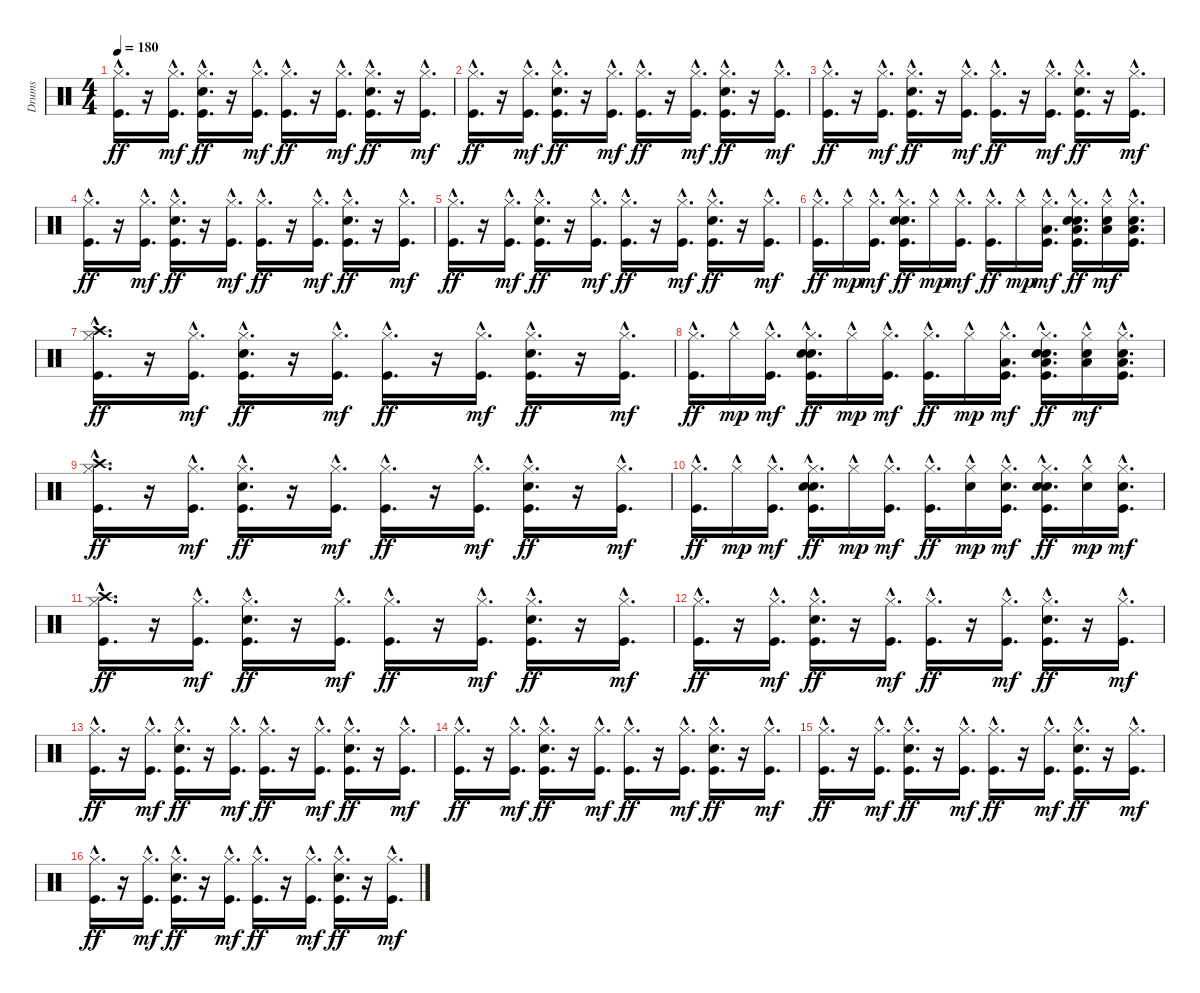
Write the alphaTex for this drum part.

\track ("Drums" "Drums") {instrument percussion}
\staff {score}
\articulation defaults
\ts (4 4)
\tempo 180
\clef neutral
\ks c
("Kick (hit)"{hac} "Hi-Hat (closed)"{hac}).16{d dy ff} r.16 ("Kick (hit)"{hac} "Hi-Hat (closed)"{hac}).16{d dy mf} ("Hi-Hat (closed)"{hac} "Snare (hit) 2"{hac} "Kick (hit)"{hac}).16{d dy ff} r.16 ("Kick (hit)"{hac} "Hi-Hat (closed)"{hac}).16{d dy mf} ("Kick (hit)"{hac} "Hi-Hat (closed)"{hac}).16{d dy ff} r.16 ("Kick (hit)"{hac} "Hi-Hat (closed)"{hac}).16{d dy mf} ("Kick (hit)"{hac} "Hi-Hat (closed)"{hac} "Snare (hit) 2"{hac}).16{d dy ff} r.16 ("Kick (hit)"{hac} "Hi-Hat (closed)"{hac}).16{d dy mf} |
("Kick (hit)"{hac} "Hi-Hat (closed)"{hac}).16{d dy ff} r.16 ("Kick (hit)"{hac} "Hi-Hat (closed)"{hac}).16{d dy mf} ("Kick (hit)"{hac} "Hi-Hat (closed)"{hac} "Snare (hit) 2"{hac}).16{d dy ff} r.16 ("Hi-Hat (closed)"{hac} "Kick (hit)"{hac}).16{d dy mf} ("Kick (hit)"{hac} "Hi-Hat (closed)"{hac}).16{d dy ff} r.16 ("Kick (hit)"{hac} "Hi-Hat (closed)"{hac}).16{d dy mf} ("Hi-Hat (closed)"{hac} "Snare (hit) 2"{hac} "Kick (hit)"{hac}).16{d dy ff} r.16 ("Hi-Hat (closed)"{hac} "Kick (hit)"{hac}).16{d dy mf} |
("Kick (hit)"{hac} "Hi-Hat (closed)"{hac}).16{d dy ff} r.16 ("Kick (hit)"{hac} "Hi-Hat (closed)"{hac}).16{d dy mf} ("Hi-Hat (closed)"{hac} "Snare (hit) 2"{hac} "Kick (hit)"{hac}).16{d dy ff} r.16 ("Kick (hit)"{hac} "Hi-Hat (closed)"{hac}).16{d dy mf} ("Kick (hit)"{hac} "Hi-Hat (closed)"{hac}).16{d dy ff} r.16 ("Hi-Hat (closed)"{hac} "Kick (hit)"{hac}).16{d dy mf} ("Hi-Hat (closed)"{hac} "Snare (hit) 2"{hac} "Kick (hit)"{hac}).16{d dy ff} r.16 ("Kick (hit)"{hac} "Hi-Hat (closed)"{hac}).16{d dy mf} |
("Kick (hit)"{hac} "Hi-Hat (closed)"{hac}).16{d dy ff} r.16 ("Hi-Hat (closed)"{hac} "Kick (hit)"{hac}).16{d dy mf} ("Hi-Hat (closed)"{hac} "Snare (hit) 2"{hac} "Kick (hit)"{hac}).16{d dy ff} r.16 ("Kick (hit)"{hac} "Hi-Hat (closed)"{hac}).16{d dy mf} ("Kick (hit)"{hac} "Hi-Hat (closed)"{hac}).16{d dy ff} r.16 ("Kick (hit)"{hac} "Hi-Hat (closed)"{hac}).16{d dy mf} ("Kick (hit)"{hac} "Snare (hit) 2"{hac} "Hi-Hat (closed)"{hac}).16{d dy ff} r.16 ("Kick (hit)"{hac} "Hi-Hat (closed)"{hac}).16{d dy mf} |
("Kick (hit)"{hac} "Hi-Hat (closed)"{hac}).16{d dy ff} r.16 ("Hi-Hat (closed)"{hac} "Kick (hit)"{hac}).16{d dy mf} ("Kick (hit)"{hac} "Snare (hit) 2"{hac} "Hi-Hat (closed)"{hac}).16{d dy ff} r.16 ("Kick (hit)"{hac} "Hi-Hat (closed)"{hac}).16{d dy mf} ("Kick (hit)"{hac} "Hi-Hat (closed)"{hac}).16{d dy ff} r.16 ("Hi-Hat (closed)"{hac} "Kick (hit)"{hac}).16{d dy mf} ("Snare (hit) 2"{hac} "Kick (hit)"{hac} "Hi-Hat (closed)"{hac}).16{d dy ff} r.16 ("Kick (hit)"{hac} "Hi-Hat (closed)"{hac}).16{d dy mf} |
("Kick (hit)"{hac} "Hi-Hat (closed)"{hac}).16{d dy ff} "Hi-Hat (closed)"{hac}.16{dy mp} ("Hi-Hat (closed)"{hac} "Kick (hit)"{hac}).16{d dy mf} ("Kick (hit)"{hac} "Hand Clap (hit)"{hac} "Hi-Hat (closed)"{hac} "Snare (hit) 2"{hac}).16{d dy ff} "Hi-Hat (closed)"{hac}.16{dy mp} ("Kick (hit)"{hac} "Hi-Hat (closed)"{hac}).16{d dy mf} ("Hi-Hat (closed)"{hac} "Kick (hit)"{hac}).16{d dy ff} "Hi-Hat (closed)"{hac}.16{dy mp} ("Kick (hit)"{hac} "Hi-Hat (closed)"{hac} "Low Tom (hit)"{hac}).16{d dy mf} ("Kick (hit)"{hac} "Snare (hit) 2"{hac} "Hand Clap (hit)"{hac} "Low Tom (hit)"{hac} "Hi-Hat (closed)"{hac}).16{d dy ff} ("Hi-Hat (closed)"{hac} "Snare (hit) 2"{hac} "Low Tom (hit)"{hac}).16{dy mf} ("Hi-Hat (closed)"{hac} "Snare (hit) 2"{hac} "Kick (hit)"{hac} "Low Tom (hit)"{hac}).16{d} |
("Kick (hit)"{hac} "Crash high (hit)"{hac} "Hi-Hat (closed)"{hac}).16{d dy ff} r.16 ("Hi-Hat (closed)"{hac} "Kick (hit)"{hac}).16{d dy mf} ("Hi-Hat (closed)"{hac} "Snare (hit) 2"{hac} "Kick (hit)"{hac}).16{d dy ff} r.16 ("Kick (hit)"{hac} "Hi-Hat (closed)"{hac}).16{d dy mf} ("Kick (hit)"{hac} "Hi-Hat (closed)"{hac}).16{d dy ff} r.16 ("Hi-Hat (closed)"{hac} "Kick (hit)"{hac}).16{d dy mf} ("Hi-Hat (closed)"{hac} "Snare (hit) 2"{hac} "Kick (hit)"{hac}).16{d dy ff} r.16 ("Kick (hit)"{hac} "Hi-Hat (closed)"{hac}).16{d dy mf} |
("Kick (hit)"{hac} "Hi-Hat (closed)"{hac}).16{d dy ff} "Hi-Hat (closed)"{hac}.16{dy mp} ("Hi-Hat (closed)"{hac} "Kick (hit)"{hac}).16{d dy mf} ("Hi-Hat (closed)"{hac} "Hand Clap (hit)"{hac} "Kick (hit)"{hac} "Snare (hit) 2"{hac}).16{d dy ff} "Hi-Hat (closed)"{hac}.16{dy mp} ("Kick (hit)"{hac} "Hi-Hat (closed)"{hac}).16{d dy mf} ("Hi-Hat (closed)"{hac} "Kick (hit)"{hac}).16{d dy ff} "Hi-Hat (closed)"{hac}.16{dy mp} ("Low Tom (hit)"{hac} "Hi-Hat (closed)"{hac} "Kick (hit)"{hac}).16{d dy mf} ("Hand Clap (hit)"{hac} "Low Tom (hit)"{hac} "Kick (hit)"{hac} "Snare (hit) 2"{hac} "Hi-Hat (closed)"{hac}).16{d dy ff} ("Snare (hit) 2"{hac} "Hi-Hat (closed)"{hac} "Low Tom (hit)"{hac}).16{dy mf} ("Kick (hit)"{hac} "Snare (hit) 2"{hac} "Hi-Hat (closed)"{hac} "Low Tom (hit)"{hac}).16{d} |
("Hi-Hat (closed)"{hac} "Crash high (hit)"{hac} "Kick (hit)"{hac}).16{d dy ff} r.16 ("Kick (hit)"{hac} "Hi-Hat (closed)"{hac}).16{d dy mf} ("Kick (hit)"{hac} "Snare (hit) 2"{hac} "Hi-Hat (closed)"{hac}).16{d dy ff} r.16 ("Kick (hit)"{hac} "Hi-Hat (closed)"{hac}).16{d dy mf} ("Kick (hit)"{hac} "Hi-Hat (closed)"{hac}).16{d dy ff} r.16 ("Kick (hit)"{hac} "Hi-Hat (closed)"{hac}).16{d dy mf} ("Hi-Hat (closed)"{hac} "Snare (hit) 2"{hac} "Kick (hit)"{hac}).16{d dy ff} r.16 ("Kick (hit)"{hac} "Hi-Hat (closed)"{hac}).16{d dy mf} |
("Hi-Hat (closed)"{hac} "Kick (hit)"{hac}).16{d dy ff} "Hi-Hat (closed)"{hac}.16{dy mp} ("Kick (hit)"{hac} "Hi-Hat (closed)"{hac}).16{d dy mf} ("Kick (hit)"{hac} "Snare (hit) 2"{hac} "Hi-Hat (closed)"{hac} "Hand Clap (hit)"{hac}).16{d dy ff} "Hi-Hat (closed)"{hac}.16{dy mp} ("Kick (hit)"{hac} "Hi-Hat (closed)"{hac}).16{d dy mf} ("Hi-Hat (closed)"{hac} "Kick (hit)"{hac}).16{d dy ff} ("Snare (hit) 2"{hac} "Hi-Hat (closed)"{hac}).16{dy mp} ("Kick (hit)"{hac} "Snare (hit) 2"{hac} "Hi-Hat (closed)"{hac}).16{d dy mf} ("Hand Clap (hit)"{hac} "Hi-Hat (closed)"{hac} "Kick (hit)"{hac} "Snare (hit) 2"{hac}).16{d dy ff} ("Snare (hit) 2"{hac} "Hi-Hat (closed)"{hac}).16{dy mp} ("Kick (hit)"{hac} "Snare (hit) 2"{hac} "Hi-Hat (closed)"{hac}).16{d dy mf} |
("Kick (hit)"{hac} "Crash high (hit)"{hac} "Hi-Hat (closed)"{hac}).16{d dy ff} r.16 ("Hi-Hat (closed)"{hac} "Kick (hit)"{hac}).16{d dy mf} ("Hi-Hat (closed)"{hac} "Snare (hit) 2"{hac} "Kick (hit)"{hac}).16{d dy ff} r.16 ("Kick (hit)"{hac} "Hi-Hat (closed)"{hac}).16{d dy mf} ("Kick (hit)"{hac} "Hi-Hat (closed)"{hac}).16{d dy ff} r.16 ("Hi-Hat (closed)"{hac} "Kick (hit)"{hac}).16{d dy mf} ("Hi-Hat (closed)"{hac} "Snare (hit) 2"{hac} "Kick (hit)"{hac}).16{d dy ff} r.16 ("Kick (hit)"{hac} "Hi-Hat (closed)"{hac}).16{d dy mf} |
("Kick (hit)"{hac} "Hi-Hat (closed)"{hac}).16{d dy ff} r.16 ("Kick (hit)"{hac} "Hi-Hat (closed)"{hac}).16{d dy mf} ("Kick (hit)"{hac} "Snare (hit) 2"{hac} "Hi-Hat (closed)"{hac}).16{d dy ff} r.16 ("Kick (hit)"{hac} "Hi-Hat (closed)"{hac}).16{d dy mf} ("Kick (hit)"{hac} "Hi-Hat (closed)"{hac}).16{d dy ff} r.16 ("Hi-Hat (closed)"{hac} "Kick (hit)"{hac}).16{d dy mf} ("Kick (hit)"{hac} "Snare (hit) 2"{hac} "Hi-Hat (closed)"{hac}).16{d dy ff} r.16 ("Kick (hit)"{hac} "Hi-Hat (closed)"{hac}).16{d dy mf} |
("Kick (hit)"{hac} "Hi-Hat (closed)"{hac}).16{d dy ff} r.16 ("Hi-Hat (closed)"{hac} "Kick (hit)"{hac}).16{d dy mf} ("Snare (hit) 2"{hac} "Kick (hit)"{hac} "Hi-Hat (closed)"{hac}).16{d dy ff} r.16 ("Kick (hit)"{hac} "Hi-Hat (closed)"{hac}).16{d dy mf} ("Kick (hit)"{hac} "Hi-Hat (closed)"{hac}).16{d dy ff} r.16 ("Kick (hit)"{hac} "Hi-Hat (closed)"{hac}).16{d dy mf} ("Snare (hit) 2"{hac} "Kick (hit)"{hac} "Hi-Hat (closed)"{hac}).16{d dy ff} r.16 ("Kick (hit)"{hac} "Hi-Hat (closed)"{hac}).16{d dy mf} |
("Kick (hit)"{hac} "Hi-Hat (closed)"{hac}).16{d dy ff} r.16 ("Kick (hit)"{hac} "Hi-Hat (closed)"{hac}).16{d dy mf} ("Hi-Hat (closed)"{hac} "Snare (hit) 2"{hac} "Kick (hit)"{hac}).16{d dy ff} r.16 ("Kick (hit)"{hac} "Hi-Hat (closed)"{hac}).16{d dy mf} ("Kick (hit)"{hac} "Hi-Hat (closed)"{hac}).16{d dy ff} r.16 ("Kick (hit)"{hac} "Hi-Hat (closed)"{hac}).16{d dy mf} ("Snare (hit) 2"{hac} "Hi-Hat (closed)"{hac} "Kick (hit)"{hac}).16{d dy ff} r.16 ("Kick (hit)"{hac} "Hi-Hat (closed)"{hac}).16{d dy mf} |
("Kick (hit)"{hac} "Hi-Hat (closed)"{hac}).16{d dy ff} r.16 ("Kick (hit)"{hac} "Hi-Hat (closed)"{hac}).16{d dy mf} ("Hi-Hat (closed)"{hac} "Snare (hit) 2"{hac} "Kick (hit)"{hac}).16{d dy ff} r.16 ("Kick (hit)"{hac} "Hi-Hat (closed)"{hac}).16{d dy mf} ("Kick (hit)"{hac} "Hi-Hat (closed)"{hac}).16{d dy ff} r.16 ("Kick (hit)"{hac} "Hi-Hat (closed)"{hac}).16{d dy mf} ("Kick (hit)"{hac} "Hi-Hat (closed)"{hac} "Snare (hit) 2"{hac}).16{d dy ff} r.16 ("Kick (hit)"{hac} "Hi-Hat (closed)"{hac}).16{d dy mf} |
("Kick (hit)"{hac} "Hi-Hat (closed)"{hac}).16{d dy ff} r.16 ("Kick (hit)"{hac} "Hi-Hat (closed)"{hac}).16{d dy mf} ("Kick (hit)"{hac} "Hi-Hat (closed)"{hac} "Snare (hit) 2"{hac}).16{d dy ff} r.16 ("Hi-Hat (closed)"{hac} "Kick (hit)"{hac}).16{d dy mf} ("Kick (hit)"{hac} "Hi-Hat (closed)"{hac}).16{d dy ff} r.16 ("Kick (hit)"{hac} "Hi-Hat (closed)"{hac}).16{d dy mf} ("Hi-Hat (closed)"{hac} "Snare (hit) 2"{hac} "Kick (hit)"{hac}).16{d dy ff} r.16 ("Hi-Hat (closed)"{hac} "Kick (hit)"{hac}).16{d dy mf}
